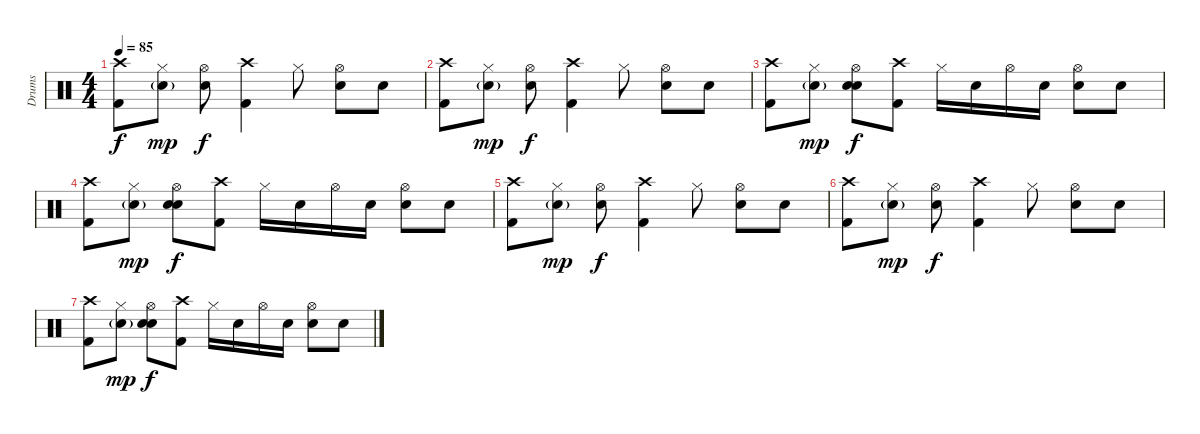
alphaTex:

\track ("Drums" "Drums") {instrument percussion}
\staff {score}
\articulation defaults
\ts (4 4)
\tempo 85
\clef neutral
\ks c
("Crash high (hit)" "Kick (hit) 2").8{dy f} ("Hi-Hat (closed)" "Electric Snare (hit)"{g}).8{dy mp} ("Hi-Hat (open)" "Electric Snare (hit)").8{dy f} ("Crash high (hit)" "Kick (hit) 2").4 "Hi-Hat (closed)".8 ("Hi-Hat (open)" "Electric Snare (hit)").8 "Electric Snare (hit)".8 |
("Crash high (hit)" "Kick (hit) 2").8 ("Hi-Hat (closed)" "Electric Snare (hit)"{g}).8{dy mp} ("Hi-Hat (open)" "Electric Snare (hit)").8{dy f} ("Crash high (hit)" "Kick (hit) 2").4 "Hi-Hat (closed)".8 ("Hi-Hat (open)" "Electric Snare (hit)").8 "Electric Snare (hit)".8 |
("Crash high (hit)" "Kick (hit) 2").8 ("Hi-Hat (closed)" "Electric Snare (hit)"{g}).8{dy mp} ("Snare (hit) 2" "Hi-Hat (open)" "Electric Snare (hit)").8{dy f} ("Crash high (hit)" "Kick (hit) 2").8 "Hi-Hat (closed)".16 "Electric Snare (hit)".16 "Hi-Hat (open)".16 "Electric Snare (hit)".16 ("Hi-Hat (open)" "Snare (hit) 2").8 "Snare (hit) 2".8 |
("Crash high (hit)" "Kick (hit) 2").8 ("Hi-Hat (closed)" "Electric Snare (hit)"{g}).8{dy mp} ("Snare (hit) 2" "Hi-Hat (open)" "Electric Snare (hit)").8{dy f} ("Crash high (hit)" "Kick (hit) 2").8 "Hi-Hat (closed)".16 "Electric Snare (hit)".16 "Hi-Hat (open)".16 "Electric Snare (hit)".16 ("Hi-Hat (open)" "Snare (hit) 2").8 "Snare (hit) 2".8 |
("Crash high (hit)" "Kick (hit) 2").8 ("Hi-Hat (closed)" "Electric Snare (hit)"{g}).8{dy mp} ("Hi-Hat (open)" "Electric Snare (hit)").8{dy f} ("Crash high (hit)" "Kick (hit) 2").4 "Hi-Hat (closed)".8 ("Hi-Hat (open)" "Electric Snare (hit)").8 "Electric Snare (hit)".8 |
("Crash high (hit)" "Kick (hit) 2").8 ("Hi-Hat (closed)" "Electric Snare (hit)"{g}).8{dy mp} ("Hi-Hat (open)" "Electric Snare (hit)").8{dy f} ("Crash high (hit)" "Kick (hit) 2").4 "Hi-Hat (closed)".8 ("Hi-Hat (open)" "Electric Snare (hit)").8 "Electric Snare (hit)".8 |
("Crash high (hit)" "Kick (hit) 2").8 ("Hi-Hat (closed)" "Electric Snare (hit)"{g}).8{dy mp} ("Snare (hit) 2" "Hi-Hat (open)" "Electric Snare (hit)").8{dy f} ("Crash high (hit)" "Kick (hit) 2").8 "Hi-Hat (closed)".16 "Electric Snare (hit)".16 "Hi-Hat (open)".16 "Electric Snare (hit)".16 ("Hi-Hat (open)" "Snare (hit) 2").8 "Snare (hit) 2".8
